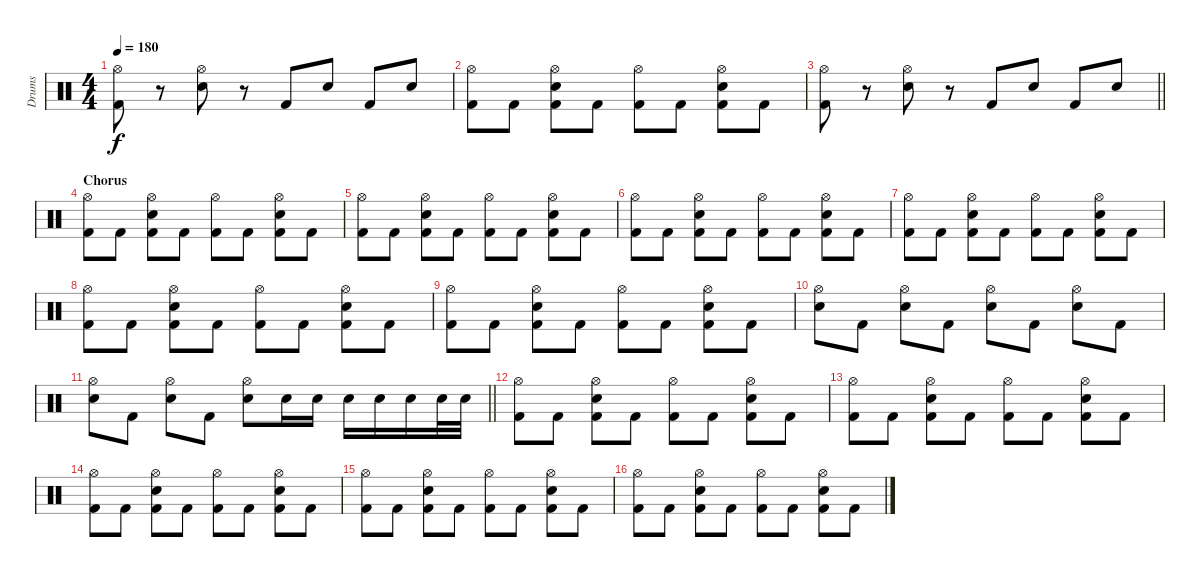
\track ("Drums" "Drums") {instrument percussion}
\staff {score}
\articulation defaults
\ts (4 4)
\tempo 180
\clef neutral
\ks c
("Hi-Hat (open)" "Kick (hit) 2").8{dy f} r.8 ("Hi-Hat (open)" "Electric Snare (hit)").8 r.8 "Kick (hit) 2".8 "Electric Snare (hit)".8 "Kick (hit) 2".8 "Electric Snare (hit)".8 |
("Hi-Hat (open)" "Kick (hit) 2").8 "Kick (hit) 2".8 ("Hi-Hat (open)" "Electric Snare (hit)" "Kick (hit) 2").8 "Kick (hit) 2".8 ("Hi-Hat (open)" "Kick (hit) 2").8 "Kick (hit) 2".8 ("Hi-Hat (open)" "Electric Snare (hit)" "Kick (hit) 2").8 "Kick (hit) 2".8 |
\barLineRight lightlight
("Hi-Hat (open)" "Kick (hit) 2").8 r.8 ("Hi-Hat (open)" "Electric Snare (hit)").8 r.8 "Kick (hit) 2".8 "Electric Snare (hit)".8 "Kick (hit) 2".8 "Electric Snare (hit)".8 |
\section ("" "Chorus")
("Hi-Hat (open)" "Kick (hit) 2").8 "Kick (hit) 2".8 ("Hi-Hat (open)" "Electric Snare (hit)" "Kick (hit) 2").8 "Kick (hit) 2".8 ("Hi-Hat (open)" "Kick (hit) 2").8 "Kick (hit) 2".8 ("Hi-Hat (open)" "Electric Snare (hit)" "Kick (hit) 2").8 "Kick (hit) 2".8 |
("Hi-Hat (open)" "Kick (hit) 2").8 "Kick (hit) 2".8 ("Hi-Hat (open)" "Electric Snare (hit)" "Kick (hit) 2").8 "Kick (hit) 2".8 ("Hi-Hat (open)" "Kick (hit) 2").8 "Kick (hit) 2".8 ("Hi-Hat (open)" "Electric Snare (hit)" "Kick (hit) 2").8 "Kick (hit) 2".8 |
("Hi-Hat (open)" "Kick (hit) 2").8 "Kick (hit) 2".8 ("Hi-Hat (open)" "Electric Snare (hit)" "Kick (hit) 2").8 "Kick (hit) 2".8 ("Hi-Hat (open)" "Kick (hit) 2").8 "Kick (hit) 2".8 ("Hi-Hat (open)" "Electric Snare (hit)" "Kick (hit) 2").8 "Kick (hit) 2".8 |
("Hi-Hat (open)" "Kick (hit) 2").8 "Kick (hit) 2".8 ("Hi-Hat (open)" "Electric Snare (hit)" "Kick (hit) 2").8 "Kick (hit) 2".8 ("Hi-Hat (open)" "Kick (hit) 2").8 "Kick (hit) 2".8 ("Hi-Hat (open)" "Electric Snare (hit)" "Kick (hit) 2").8 "Kick (hit) 2".8 |
("Hi-Hat (open)" "Kick (hit) 2").8 "Kick (hit) 2".8 ("Hi-Hat (open)" "Electric Snare (hit)" "Kick (hit) 2").8 "Kick (hit) 2".8 ("Hi-Hat (open)" "Kick (hit) 2").8 "Kick (hit) 2".8 ("Hi-Hat (open)" "Electric Snare (hit)" "Kick (hit) 2").8 "Kick (hit) 2".8 |
("Hi-Hat (open)" "Kick (hit) 2").8 "Kick (hit) 2".8 ("Hi-Hat (open)" "Electric Snare (hit)" "Kick (hit) 2").8 "Kick (hit) 2".8 ("Hi-Hat (open)" "Kick (hit) 2").8 "Kick (hit) 2".8 ("Hi-Hat (open)" "Electric Snare (hit)" "Kick (hit) 2").8 "Kick (hit) 2".8 |
("Hi-Hat (open)" "Electric Snare (hit)").8 "Kick (hit) 2".8 ("Hi-Hat (open)" "Electric Snare (hit)").8 "Kick (hit) 2".8 ("Hi-Hat (open)" "Electric Snare (hit)").8 "Kick (hit) 2".8 ("Hi-Hat (open)" "Electric Snare (hit)").8 "Kick (hit) 2".8 |
\barLineRight lightlight
("Hi-Hat (open)" "Electric Snare (hit)").8 "Kick (hit) 2".8 ("Hi-Hat (open)" "Electric Snare (hit)").8 "Kick (hit) 2".8 ("Hi-Hat (open)" "Electric Snare (hit)").8 "Electric Snare (hit)".16 "Electric Snare (hit)".16 "Electric Snare (hit)".16 "Electric Snare (hit)".16 "Electric Snare (hit)".16 "Electric Snare (hit)".32 "Electric Snare (hit)".32 |
("Hi-Hat (open)" "Kick (hit) 2").8 "Kick (hit) 2".8 ("Hi-Hat (open)" "Electric Snare (hit)" "Kick (hit) 2").8 "Kick (hit) 2".8 ("Hi-Hat (open)" "Kick (hit) 2").8 "Kick (hit) 2".8 ("Hi-Hat (open)" "Electric Snare (hit)" "Kick (hit) 2").8 "Kick (hit) 2".8 |
("Hi-Hat (open)" "Kick (hit) 2").8 "Kick (hit) 2".8 ("Hi-Hat (open)" "Electric Snare (hit)" "Kick (hit) 2").8 "Kick (hit) 2".8 ("Hi-Hat (open)" "Kick (hit) 2").8 "Kick (hit) 2".8 ("Hi-Hat (open)" "Electric Snare (hit)" "Kick (hit) 2").8 "Kick (hit) 2".8 |
("Hi-Hat (open)" "Kick (hit) 2").8 "Kick (hit) 2".8 ("Hi-Hat (open)" "Electric Snare (hit)" "Kick (hit) 2").8 "Kick (hit) 2".8 ("Hi-Hat (open)" "Kick (hit) 2").8 "Kick (hit) 2".8 ("Hi-Hat (open)" "Electric Snare (hit)" "Kick (hit) 2").8 "Kick (hit) 2".8 |
("Hi-Hat (open)" "Kick (hit) 2").8 "Kick (hit) 2".8 ("Hi-Hat (open)" "Electric Snare (hit)" "Kick (hit) 2").8 "Kick (hit) 2".8 ("Hi-Hat (open)" "Kick (hit) 2").8 "Kick (hit) 2".8 ("Hi-Hat (open)" "Electric Snare (hit)" "Kick (hit) 2").8 "Kick (hit) 2".8 |
("Hi-Hat (open)" "Kick (hit) 2").8 "Kick (hit) 2".8 ("Hi-Hat (open)" "Electric Snare (hit)" "Kick (hit) 2").8 "Kick (hit) 2".8 ("Hi-Hat (open)" "Kick (hit) 2").8 "Kick (hit) 2".8 ("Hi-Hat (open)" "Electric Snare (hit)" "Kick (hit) 2").8 "Kick (hit) 2".8
